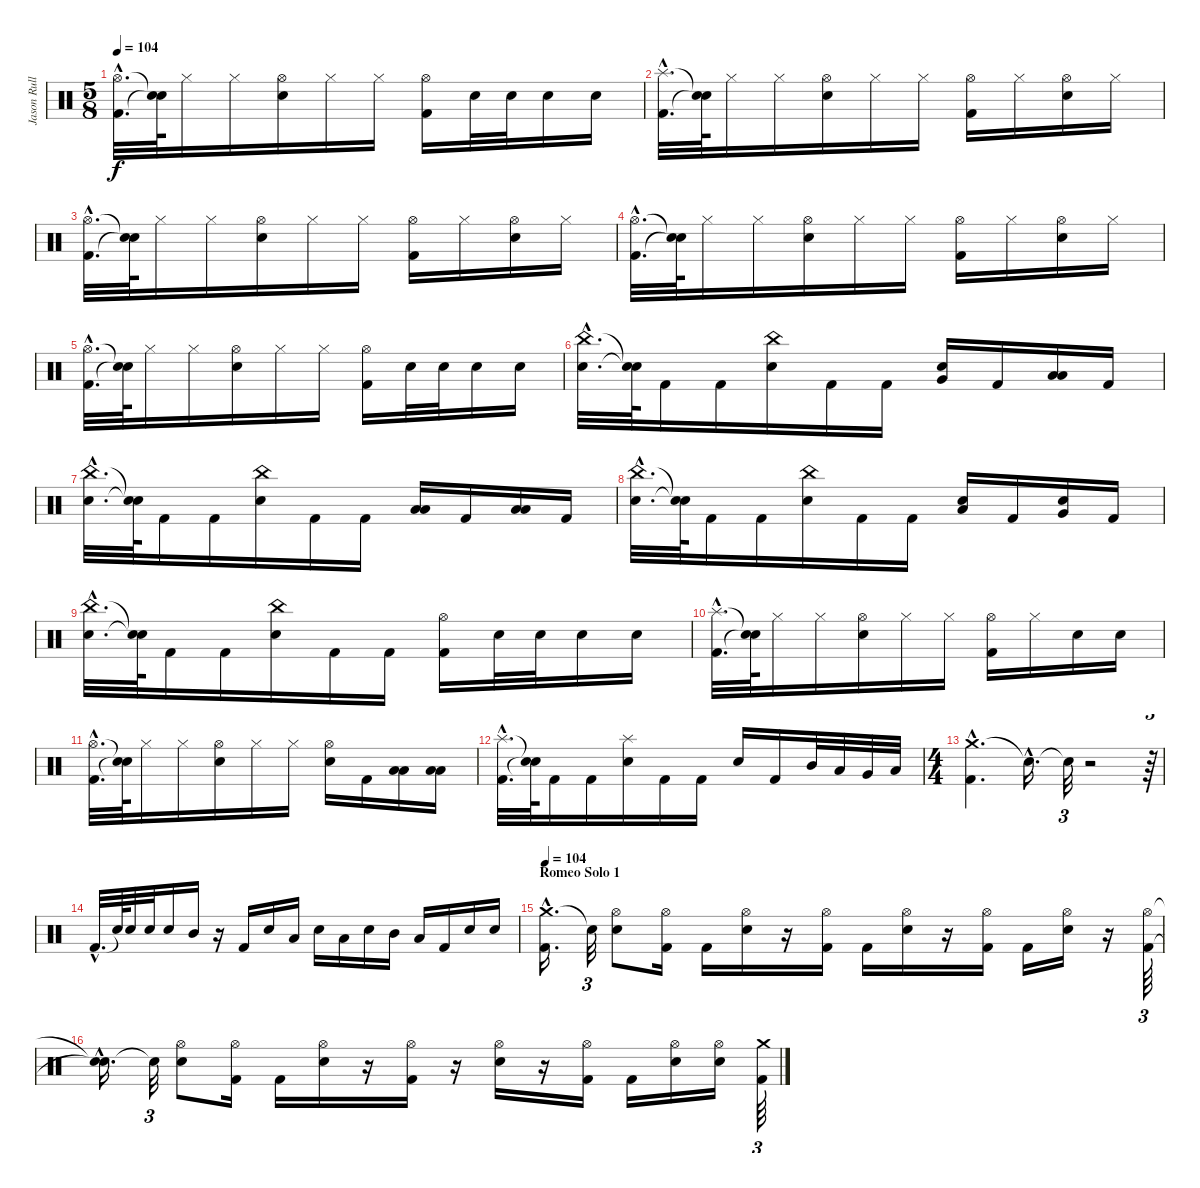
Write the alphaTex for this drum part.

\track ("Jason Rullo" "Jason Rull") {instrument percussion}
\staff {score}
\articulation defaults
\ts (5 8)
\tempo 104
\clef neutral
\ks c
("Hi-Hat (open)"{hac} "Kick (hit) 2"{hac}).32{d dy f} ("Snare (hit)"{t} "Snare (hit)"{t}).64 "Hi-Hat (closed)".16 "Hi-Hat (closed)".16 ("Hi-Hat (open)" "Electric Snare (hit)").16 "Hi-Hat (closed)".16 "Hi-Hat (closed)".16 ("Hi-Hat (open)" "Kick (hit) 2").16 "Electric Snare (hit)".32 "Electric Snare (hit)".32 "Electric Snare (hit)".16 "Electric Snare (hit)".16 |
("Splash (hit)"{hac} "Kick (hit) 2"{hac}).32{d} ("Snare (hit)"{t} "Snare (hit)"{t}).64 "Hi-Hat (closed)".16 "Hi-Hat (closed)".16 ("Hi-Hat (open)" "Electric Snare (hit)").16 "Hi-Hat (closed)".16 "Hi-Hat (closed)".16 ("Hi-Hat (open)" "Kick (hit) 2").16 "Hi-Hat (closed)".16 ("Hi-Hat (open)" "Electric Snare (hit)").16 "Hi-Hat (closed)".16 |
("Hi-Hat (open)"{hac} "Kick (hit) 2"{hac}).32{d} ("Snare (hit)"{t} "Snare (hit)"{t}).64 "Hi-Hat (closed)".16 "Hi-Hat (closed)".16 ("Hi-Hat (open)" "Electric Snare (hit)").16 "Hi-Hat (closed)".16 "Hi-Hat (closed)".16 ("Hi-Hat (open)" "Kick (hit) 2").16 "Hi-Hat (closed)".16 ("Hi-Hat (open)" "Electric Snare (hit)").16 "Hi-Hat (closed)".16 |
("Hi-Hat (open)"{hac} "Kick (hit) 2"{hac}).32{d} ("Snare (hit)"{t} "Snare (hit)"{t}).64 "Hi-Hat (closed)".16 "Hi-Hat (closed)".16 ("Hi-Hat (open)" "Electric Snare (hit)").16 "Hi-Hat (closed)".16 "Hi-Hat (closed)".16 ("Hi-Hat (open)" "Kick (hit) 2").16 "Hi-Hat (closed)".16 ("Hi-Hat (open)" "Electric Snare (hit)").16 "Hi-Hat (closed)".16 |
("Hi-Hat (open)"{hac} "Kick (hit) 2"{hac}).32{d} ("Snare (hit)"{t} "Snare (hit)"{t}).64 "Hi-Hat (closed)".16 "Hi-Hat (closed)".16 ("Hi-Hat (open)" "Electric Snare (hit)").16 "Hi-Hat (closed)".16 "Hi-Hat (closed)".16 ("Hi-Hat (open)" "Kick (hit) 2").16 "Electric Snare (hit)".32 "Electric Snare (hit)".32 "Electric Snare (hit)".16 "Electric Snare (hit)".16 |
("China (hit)"{hac} "Electric Snare (hit)"{hac}).32{d} ("Snare (hit)"{t} "Snare (hit)"{t}).64 "Kick (hit) 2".16 "Kick (hit) 2".16 ("China (hit)" "Electric Snare (hit)").16 "Kick (hit) 2".16 "Kick (hit) 2".16 ("Very Low Tom (hit)" "Electric Snare (hit)").16 "Kick (hit) 2".16 ("Low Floor Tom (hit)" "Low Tom (hit)").16 "Kick (hit) 2".16 |
("China (hit)"{hac} "Electric Snare (hit)"{hac}).32{d} ("Snare (hit)"{t} "Snare (hit)"{t}).64 "Kick (hit) 2".16 "Kick (hit) 2".16 ("China (hit)" "Electric Snare (hit)").16 "Kick (hit) 2".16 "Kick (hit) 2".16 ("Low Floor Tom (hit)" "Low Tom (hit)").16 "Kick (hit) 2".16 ("Low Floor Tom (hit)" "Low Tom (hit)").16 "Kick (hit) 2".16 |
("China (hit)"{hac} "Electric Snare (hit)"{hac}).32{d} ("Snare (hit)"{t} "Snare (hit)"{t}).64 "Kick (hit) 2".16 "Kick (hit) 2".16 ("China (hit)" "Electric Snare (hit)").16 "Kick (hit) 2".16 "Kick (hit) 2".16 ("Low Tom (hit)" "Electric Snare (hit)").16 "Kick (hit) 2".16 ("Very Low Tom (hit)" "Electric Snare (hit)").16 "Kick (hit) 2".16 |
("China (hit)"{hac} "Electric Snare (hit)"{hac}).32{d} ("Snare (hit)"{t} "Snare (hit)"{t}).64 "Kick (hit) 2".16 "Kick (hit) 2".16 ("China (hit)" "Electric Snare (hit)").16 "Kick (hit) 2".16 "Kick (hit) 2".16 ("Hi-Hat (open)" "Kick (hit) 2").16 "Electric Snare (hit)".32 "Electric Snare (hit)".32 "Electric Snare (hit)".16 "Electric Snare (hit)".16 |
("Splash (hit)"{hac} "Kick (hit) 2"{hac}).32{d} ("Snare (hit)"{t} "Snare (hit)"{t}).64 "Hi-Hat (closed)".16 "Hi-Hat (closed)".16 ("Hi-Hat (open)" "Electric Snare (hit)").16 "Hi-Hat (closed)".16 "Hi-Hat (closed)".16 ("Hi-Hat (open)" "Kick (hit) 2").16 "Hi-Hat (closed)".16 "Electric Snare (hit)".16 "Electric Snare (hit)".16 |
("Hi-Hat (open)"{hac} "Kick (hit) 2"{hac}).32{d} ("Snare (hit)"{t} "Snare (hit)"{t}).64 "Hi-Hat (closed)".16 "Hi-Hat (closed)".16 ("Hi-Hat (open)" "Electric Snare (hit)").16 "Hi-Hat (closed)".16 "Hi-Hat (closed)".16 ("Hi-Hat (open)" "Electric Snare (hit)").16 "Kick (hit) 2".16 ("Low Tom (hit)" "Low Floor Tom (hit)").16 ("Low Tom (hit)" "Low Floor Tom (hit)").16 |
("Kick (hit) 2"{hac} "Splash (hit)"{hac}).32{d} ("Snare (hit)"{t} "Snare (hit)"{t}).64 "Kick (hit) 2".16 "Kick (hit) 2".16 ("Splash (hit)" "Electric Snare (hit)").16 "Kick (hit) 2".16 "Kick (hit) 2".16 "Electric Snare (hit)".16 "Kick (hit) 2".16 "Mid Tom (hit)".32 "Low Tom (hit)".32 "Very Low Tom (hit)".32 "Low Floor Tom (hit)".32 |
\ts (4 4)
("Crash medium (hit)"{hac} "Kick (hit) 2"{hac}).4{d} "Snare (hit)"{hac t}.16{d} "Snare (hit)"{t}.32{tu (3 2)} r.2 r.64{tu (3 2)} |
"Kick (hit) 2"{hac}.32{d} "Snare (hit)"{t}.64 "Electric Snare (hit)".32 "Electric Snare (hit)".32 "Electric Snare (hit)".16 "Mid Tom (hit)".16 r.16 "Kick (hit) 2".16 "Electric Snare (hit)".16 "Low Tom (hit)".16 "Electric Snare (hit)".16 "Low Floor Tom (hit)".16 "Electric Snare (hit)".16 "Mid Tom (hit)".16 "Low Tom (hit)".16 "Kick (hit) 2".16 "Electric Snare (hit)".16 "Electric Snare (hit)".16 |
\section ("" "Romeo Solo 1")
\tempo 104
("Crash medium (hit)"{hac} "Kick (hit) 2"{hac}).16{d volume 15 balance 8} "Snare (hit)"{t}.32{tu (3 2)} ("Hi-Hat (open)" "Electric Snare (hit)").8 ("Hi-Hat (open)" "Kick (hit) 2").16 "Kick (hit) 2".16 ("Hi-Hat (open)" "Electric Snare (hit)").16 r.16 ("Hi-Hat (open)" "Kick (hit) 2").16 "Kick (hit) 2".16 ("Hi-Hat (open)" "Electric Snare (hit)").16 r.16 ("Hi-Hat (open)" "Kick (hit) 2").16 "Kick (hit) 2".16 ("Hi-Hat (open)" "Electric Snare (hit)").16 r.16 ("Hi-Hat (open)" "Kick (hit) 2").64{tu (3 2)} |
("Snare (hit)"{hac t} "Snare (hit)"{hac t}).16{d} "Snare (hit)"{t}.32{tu (3 2)} ("Hi-Hat (open)" "Electric Snare (hit)").8 ("Hi-Hat (open)" "Kick (hit) 2").16 "Kick (hit) 2".16 ("Hi-Hat (open)" "Electric Snare (hit)").16 r.16 ("Hi-Hat (open)" "Kick (hit) 2").16 r.16 ("Hi-Hat (open)" "Electric Snare (hit)").16 r.16 ("Hi-Hat (open)" "Kick (hit) 2").16 "Kick (hit) 2".16 ("Hi-Hat (open)" "Electric Snare (hit)").16 ("Hi-Hat (open)" "Electric Snare (hit)").16 ("Crash medium (hit)" "Kick (hit) 2").64{tu (3 2)}
